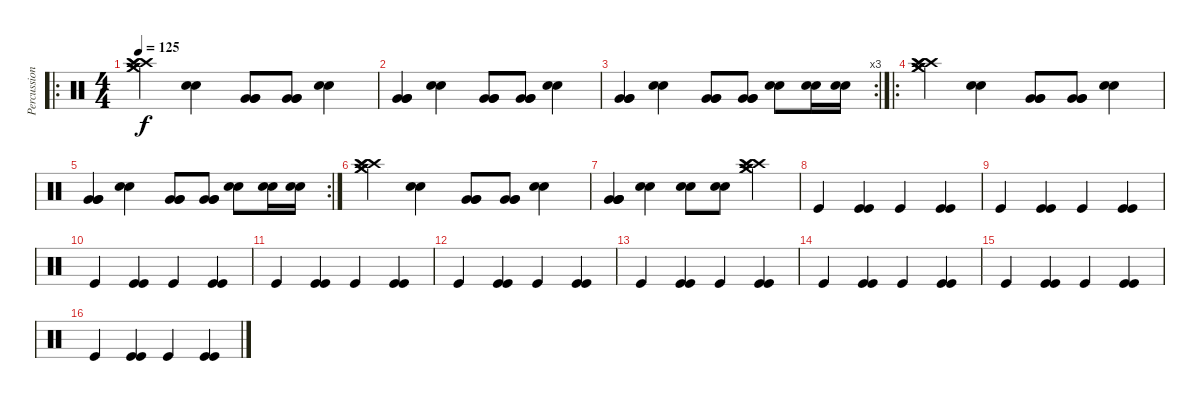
\track ("Percussions" "Percussion") {instrument percussion}
\staff {score}
\articulation defaults
\ro
\ts (4 4)
\tempo 125
\clef neutral
\ks c
("Crash high (hit)" "Crash high (hit)" "Splash (hit)" "Splash (hit)" "Crash medium (hit)" "Crash medium (hit)").4{dy f} ("Electric Snare (hit)" "Electric Snare (hit)").4 ("Very Low Tom (hit)" "Very Low Tom (hit)" "Very Low Tom (hit)").8 ("Very Low Tom (hit)" "Very Low Tom (hit)" "Very Low Tom (hit)").8 ("Electric Snare (hit)" "Electric Snare (hit)").4 |
("Very Low Tom (hit)" "Very Low Tom (hit)" "Very Low Tom (hit)").4 ("Electric Snare (hit)" "Electric Snare (hit)").4 ("Very Low Tom (hit)" "Very Low Tom (hit)" "Very Low Tom (hit)").8 ("Very Low Tom (hit)" "Very Low Tom (hit)" "Very Low Tom (hit)").8 ("Electric Snare (hit)" "Electric Snare (hit)").4 |
\rc 3
("Very Low Tom (hit)" "Very Low Tom (hit)" "Very Low Tom (hit)").4 ("Electric Snare (hit)" "Electric Snare (hit)").4 ("Very Low Tom (hit)" "Very Low Tom (hit)" "Very Low Tom (hit)").8 ("Very Low Tom (hit)" "Very Low Tom (hit)" "Very Low Tom (hit)").8 ("Electric Snare (hit)" "Electric Snare (hit)").8 ("Electric Snare (hit)" "Electric Snare (hit)").16 ("Electric Snare (hit)" "Electric Snare (hit)").16 |
\ro
("Crash high (hit)" "Crash high (hit)" "Splash (hit)" "Splash (hit)" "Crash medium (hit)" "Crash medium (hit)").4 ("Electric Snare (hit)" "Electric Snare (hit)").4 ("Very Low Tom (hit)" "Very Low Tom (hit)" "Very Low Tom (hit)").8 ("Very Low Tom (hit)" "Very Low Tom (hit)" "Very Low Tom (hit)").8 ("Electric Snare (hit)" "Electric Snare (hit)").4 |
\rc 2
("Very Low Tom (hit)" "Very Low Tom (hit)" "Very Low Tom (hit)").4 ("Electric Snare (hit)" "Electric Snare (hit)").4 ("Very Low Tom (hit)" "Very Low Tom (hit)" "Very Low Tom (hit)").8 ("Very Low Tom (hit)" "Very Low Tom (hit)" "Very Low Tom (hit)").8 ("Electric Snare (hit)" "Electric Snare (hit)").8 ("Electric Snare (hit)" "Electric Snare (hit)").16 ("Electric Snare (hit)" "Electric Snare (hit)").16 |
("Crash high (hit)" "Crash high (hit)" "Splash (hit)" "Splash (hit)" "Crash medium (hit)" "Crash medium (hit)").4 ("Electric Snare (hit)" "Electric Snare (hit)").4 ("Very Low Tom (hit)" "Very Low Tom (hit)" "Very Low Tom (hit)").8 ("Very Low Tom (hit)" "Very Low Tom (hit)" "Very Low Tom (hit)").8 ("Electric Snare (hit)" "Electric Snare (hit)").4 |
("Very Low Tom (hit)" "Very Low Tom (hit)" "Very Low Tom (hit)" "Very Low Tom (hit)").4 ("Electric Snare (hit)" "Electric Snare (hit)").4 ("Electric Snare (hit)" "Electric Snare (hit)").8 ("Electric Snare (hit)" "Electric Snare (hit)").8 ("Crash high (hit)" "Crash high (hit)" "Crash medium (hit)" "Crash medium (hit)" "Splash (hit)" "Splash (hit)").4 |
"Kick (hit)".4 ("Kick (hit)" "Kick (hit)").4 "Kick (hit)".4 ("Kick (hit)" "Kick (hit)").4 |
"Kick (hit)".4 ("Kick (hit)" "Kick (hit)").4 "Kick (hit)".4 ("Kick (hit)" "Kick (hit)").4 |
"Kick (hit)".4 ("Kick (hit)" "Kick (hit)").4 "Kick (hit)".4 ("Kick (hit)" "Kick (hit)").4 |
"Kick (hit)".4 ("Kick (hit)" "Kick (hit)").4 "Kick (hit)".4 ("Kick (hit)" "Kick (hit)").4 |
"Kick (hit)".4 ("Kick (hit)" "Kick (hit)").4 "Kick (hit)".4 ("Kick (hit)" "Kick (hit)").4 |
"Kick (hit)".4 ("Kick (hit)" "Kick (hit)").4 "Kick (hit)".4 ("Kick (hit)" "Kick (hit)").4 |
"Kick (hit)".4 ("Kick (hit)" "Kick (hit)").4 "Kick (hit)".4 ("Kick (hit)" "Kick (hit)").4 |
"Kick (hit)".4 ("Kick (hit)" "Kick (hit)").4 "Kick (hit)".4 ("Kick (hit)" "Kick (hit)").4 |
"Kick (hit)".4 ("Kick (hit)" "Kick (hit)").4 "Kick (hit)".4 ("Kick (hit)" "Kick (hit)").4
